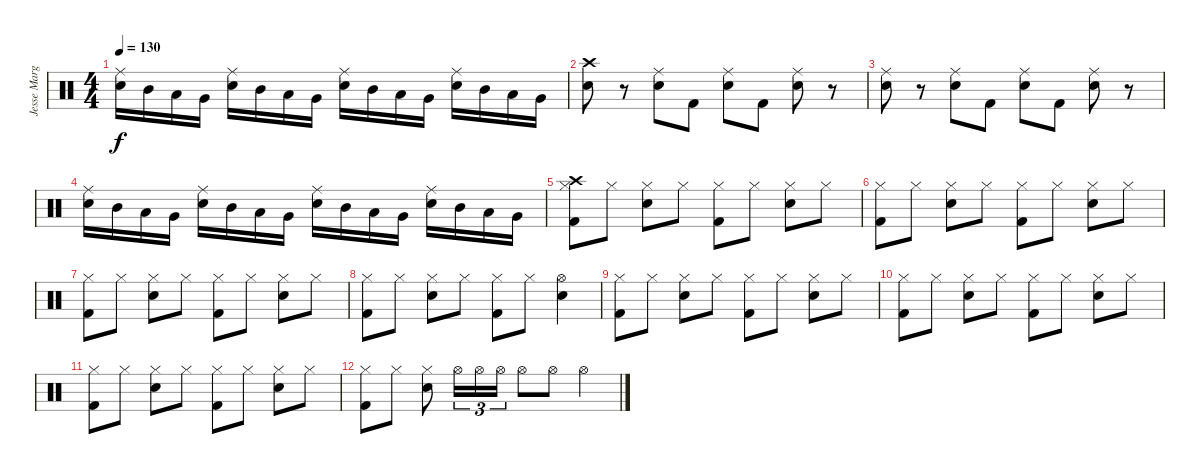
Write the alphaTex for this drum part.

\track ("Jesse Margera" "Jesse Marg") {instrument percussion}
\staff {score}
\articulation defaults
\ts (4 4)
\tempo 130
\clef neutral
\ks c
("Ride (middle)" "Electric Snare (hit)").16{dy f} "Mid Tom (hit)".16 "Low Tom (hit)".16 "Very Low Tom (hit)".16 ("Ride (middle)" "Electric Snare (hit)").16 "Mid Tom (hit)".16 "Low Tom (hit)".16 "Very Low Tom (hit)".16 ("Ride (middle)" "Electric Snare (hit)").16 "Mid Tom (hit)".16 "Low Tom (hit)".16 "Very Low Tom (hit)".16 ("Ride (middle)" "Electric Snare (hit)").16 "Mid Tom (hit)".16 "Low Tom (hit)".16 "Very Low Tom (hit)".16 |
("Crash high (hit)" "Electric Snare (hit)").8 r.8 ("Ride (middle)" "Electric Snare (hit)").8 "Kick (hit) 2".8 ("Ride (middle)" "Electric Snare (hit)").8 "Kick (hit) 2".8 ("Ride (middle)" "Electric Snare (hit)").8 r.8 |
("Ride (middle)" "Electric Snare (hit)").8 r.8 ("Ride (middle)" "Electric Snare (hit)").8 "Kick (hit) 2".8 ("Ride (middle)" "Electric Snare (hit)").8 "Kick (hit) 2".8 ("Ride (middle)" "Electric Snare (hit)").8 r.8 |
("Ride (middle)" "Electric Snare (hit)").16 "Mid Tom (hit)".16 "Low Tom (hit)".16 "Very Low Tom (hit)".16 ("Ride (middle)" "Electric Snare (hit)").16 "Mid Tom (hit)".16 "Low Tom (hit)".16 "Very Low Tom (hit)".16 ("Ride (middle)" "Electric Snare (hit)").16 "Mid Tom (hit)".16 "Low Tom (hit)".16 "Very Low Tom (hit)".16 ("Ride (middle)" "Electric Snare (hit)").16 "Mid Tom (hit)".16 "Low Tom (hit)".16 "Very Low Tom (hit)".16 |
("Hi-Hat (closed)" "Crash high (hit)" "Kick (hit) 2").8 "Hi-Hat (closed)".8 ("Hi-Hat (closed)" "Electric Snare (hit)").8 "Hi-Hat (closed)".8 ("Hi-Hat (closed)" "Kick (hit) 2").8 "Hi-Hat (closed)".8 ("Hi-Hat (closed)" "Electric Snare (hit)").8 "Hi-Hat (closed)".8 |
("Hi-Hat (closed)" "Kick (hit) 2").8 "Hi-Hat (closed)".8 ("Hi-Hat (closed)" "Electric Snare (hit)").8 "Hi-Hat (closed)".8 ("Hi-Hat (closed)" "Kick (hit) 2").8 "Hi-Hat (closed)".8 ("Hi-Hat (closed)" "Electric Snare (hit)").8 "Hi-Hat (closed)".8 |
("Hi-Hat (closed)" "Kick (hit) 2").8 "Hi-Hat (closed)".8 ("Hi-Hat (closed)" "Electric Snare (hit)").8 "Hi-Hat (closed)".8 ("Hi-Hat (closed)" "Kick (hit) 2").8 "Hi-Hat (closed)".8 ("Hi-Hat (closed)" "Electric Snare (hit)").8 "Hi-Hat (closed)".8 |
("Hi-Hat (closed)" "Kick (hit) 2").8 "Hi-Hat (closed)".8 ("Hi-Hat (closed)" "Electric Snare (hit)").8 "Hi-Hat (closed)".8 ("Hi-Hat (closed)" "Kick (hit) 2").8 "Hi-Hat (closed)".8 ("Hi-Hat (open)" "Electric Snare (hit)").4 |
("Hi-Hat (closed)" "Kick (hit) 2").8 "Hi-Hat (closed)".8 ("Hi-Hat (closed)" "Electric Snare (hit)").8 "Hi-Hat (closed)".8 ("Hi-Hat (closed)" "Kick (hit) 2").8 "Hi-Hat (closed)".8 ("Hi-Hat (closed)" "Electric Snare (hit)").8 "Hi-Hat (closed)".8 |
("Hi-Hat (closed)" "Kick (hit) 2").8 "Hi-Hat (closed)".8 ("Hi-Hat (closed)" "Electric Snare (hit)").8 "Hi-Hat (closed)".8 ("Hi-Hat (closed)" "Kick (hit) 2").8 "Hi-Hat (closed)".8 ("Hi-Hat (closed)" "Electric Snare (hit)").8 "Hi-Hat (closed)".8 |
("Hi-Hat (closed)" "Kick (hit) 2").8 "Hi-Hat (closed)".8 ("Hi-Hat (closed)" "Electric Snare (hit)").8 "Hi-Hat (closed)".8 ("Hi-Hat (closed)" "Kick (hit) 2").8 "Hi-Hat (closed)".8 ("Hi-Hat (closed)" "Electric Snare (hit)").8 "Hi-Hat (closed)".8 |
("Hi-Hat (closed)" "Kick (hit) 2").8 "Hi-Hat (closed)".8 ("Hi-Hat (closed)" "Electric Snare (hit)").8 "Hi-Hat (open)".16{tu (3 2)} "Hi-Hat (open)".16{tu (3 2)} "Hi-Hat (open)".16{tu (3 2)} "Hi-Hat (open)".8 "Hi-Hat (open)".8 "Hi-Hat (open)".4
